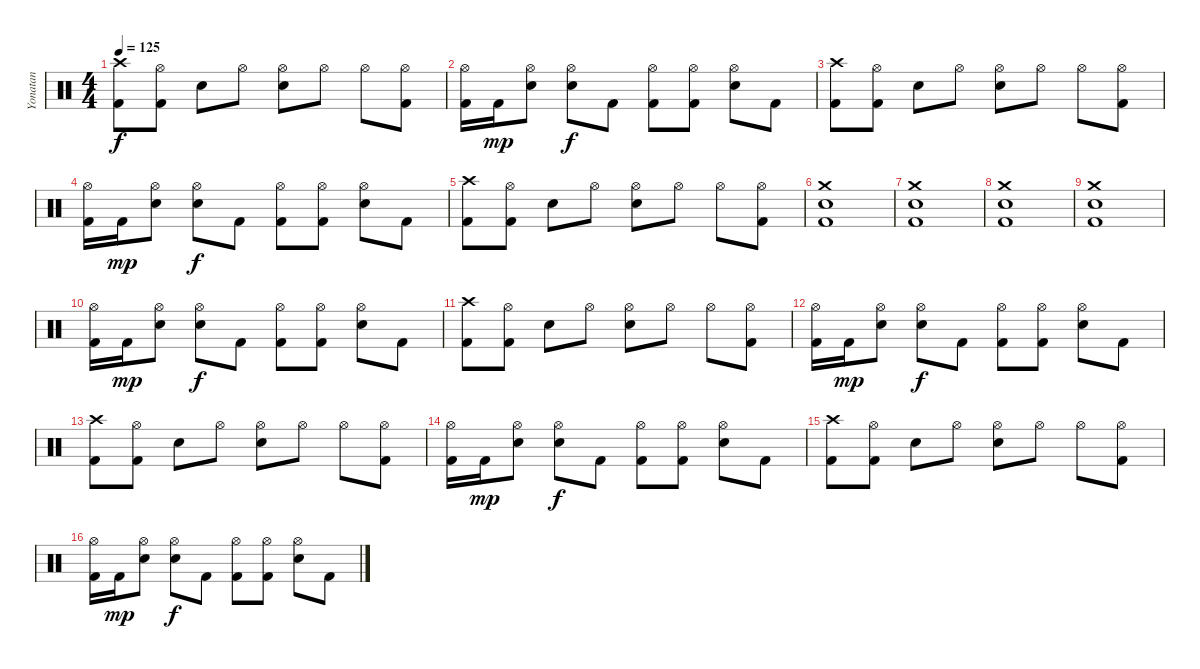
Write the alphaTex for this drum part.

\track ("Yonatan" "Yonatan") {instrument percussion}
\staff {score}
\articulation defaults
\ts (4 4)
\tempo 125
\clef neutral
\ks c
("Crash high (hit)" "Kick (hit) 2").8{dy f} ("Hi-Hat (open)" "Kick (hit) 2").8 "Electric Snare (hit)".8 "Hi-Hat (open)".8 ("Hi-Hat (open)" "Electric Snare (hit)").8 "Hi-Hat (open)".8 "Hi-Hat (open)".8 ("Hi-Hat (open)" "Kick (hit) 2").8 |
("Hi-Hat (open)" "Kick (hit) 2").16 "Kick (hit) 2".16{dy mp} ("Hi-Hat (open)" "Electric Snare (hit)").8 ("Hi-Hat (open)" "Electric Snare (hit)").8{dy f} "Kick (hit) 2".8 ("Hi-Hat (open)" "Kick (hit) 2").8 ("Hi-Hat (open)" "Kick (hit) 2").8 ("Hi-Hat (open)" "Electric Snare (hit)").8 "Kick (hit) 2".8 |
("Crash high (hit)" "Kick (hit) 2").8 ("Hi-Hat (open)" "Kick (hit) 2").8 "Electric Snare (hit)".8 "Hi-Hat (open)".8 ("Hi-Hat (open)" "Electric Snare (hit)").8 "Hi-Hat (open)".8 "Hi-Hat (open)".8 ("Hi-Hat (open)" "Kick (hit) 2").8 |
("Hi-Hat (open)" "Kick (hit) 2").16 "Kick (hit) 2".16{dy mp} ("Hi-Hat (open)" "Electric Snare (hit)").8 ("Hi-Hat (open)" "Electric Snare (hit)").8{dy f} "Kick (hit) 2".8 ("Hi-Hat (open)" "Kick (hit) 2").8 ("Hi-Hat (open)" "Kick (hit) 2").8 ("Hi-Hat (open)" "Electric Snare (hit)").8 "Kick (hit) 2".8 |
("Crash high (hit)" "Kick (hit) 2").8 ("Hi-Hat (open)" "Kick (hit) 2").8 "Electric Snare (hit)".8 "Hi-Hat (open)".8 ("Hi-Hat (open)" "Electric Snare (hit)").8 "Hi-Hat (open)".8 "Hi-Hat (open)".8 ("Hi-Hat (open)" "Kick (hit) 2").8 |
("Kick (hit) 2" "Snare (hit) 2" "Crash medium (hit)").1 |
("Kick (hit) 2" "Snare (hit) 2" "Crash medium (hit)").1 |
("Kick (hit) 2" "Snare (hit) 2" "Crash medium (hit)").1 |
("Kick (hit) 2" "Snare (hit) 2" "Crash medium (hit)").1 |
("Hi-Hat (open)" "Kick (hit) 2").16 "Kick (hit) 2".16{dy mp} ("Hi-Hat (open)" "Electric Snare (hit)").8 ("Hi-Hat (open)" "Electric Snare (hit)").8{dy f} "Kick (hit) 2".8 ("Hi-Hat (open)" "Kick (hit) 2").8 ("Hi-Hat (open)" "Kick (hit) 2").8 ("Hi-Hat (open)" "Electric Snare (hit)").8 "Kick (hit) 2".8 |
("Crash high (hit)" "Kick (hit) 2").8 ("Hi-Hat (open)" "Kick (hit) 2").8 "Electric Snare (hit)".8 "Hi-Hat (open)".8 ("Hi-Hat (open)" "Electric Snare (hit)").8 "Hi-Hat (open)".8 "Hi-Hat (open)".8 ("Hi-Hat (open)" "Kick (hit) 2").8 |
("Hi-Hat (open)" "Kick (hit) 2").16 "Kick (hit) 2".16{dy mp} ("Hi-Hat (open)" "Electric Snare (hit)").8 ("Hi-Hat (open)" "Electric Snare (hit)").8{dy f} "Kick (hit) 2".8 ("Hi-Hat (open)" "Kick (hit) 2").8 ("Hi-Hat (open)" "Kick (hit) 2").8 ("Hi-Hat (open)" "Electric Snare (hit)").8 "Kick (hit) 2".8 |
("Crash high (hit)" "Kick (hit) 2").8 ("Hi-Hat (open)" "Kick (hit) 2").8 "Electric Snare (hit)".8 "Hi-Hat (open)".8 ("Hi-Hat (open)" "Electric Snare (hit)").8 "Hi-Hat (open)".8 "Hi-Hat (open)".8 ("Hi-Hat (open)" "Kick (hit) 2").8 |
("Hi-Hat (open)" "Kick (hit) 2").16 "Kick (hit) 2".16{dy mp} ("Hi-Hat (open)" "Electric Snare (hit)").8 ("Hi-Hat (open)" "Electric Snare (hit)").8{dy f} "Kick (hit) 2".8 ("Hi-Hat (open)" "Kick (hit) 2").8 ("Hi-Hat (open)" "Kick (hit) 2").8 ("Hi-Hat (open)" "Electric Snare (hit)").8 "Kick (hit) 2".8 |
("Crash high (hit)" "Kick (hit) 2").8 ("Hi-Hat (open)" "Kick (hit) 2").8 "Electric Snare (hit)".8 "Hi-Hat (open)".8 ("Hi-Hat (open)" "Electric Snare (hit)").8 "Hi-Hat (open)".8 "Hi-Hat (open)".8 ("Hi-Hat (open)" "Kick (hit) 2").8 |
("Hi-Hat (open)" "Kick (hit) 2").16 "Kick (hit) 2".16{dy mp} ("Hi-Hat (open)" "Electric Snare (hit)").8 ("Hi-Hat (open)" "Electric Snare (hit)").8{dy f} "Kick (hit) 2".8 ("Hi-Hat (open)" "Kick (hit) 2").8 ("Hi-Hat (open)" "Kick (hit) 2").8 ("Hi-Hat (open)" "Electric Snare (hit)").8 "Kick (hit) 2".8
